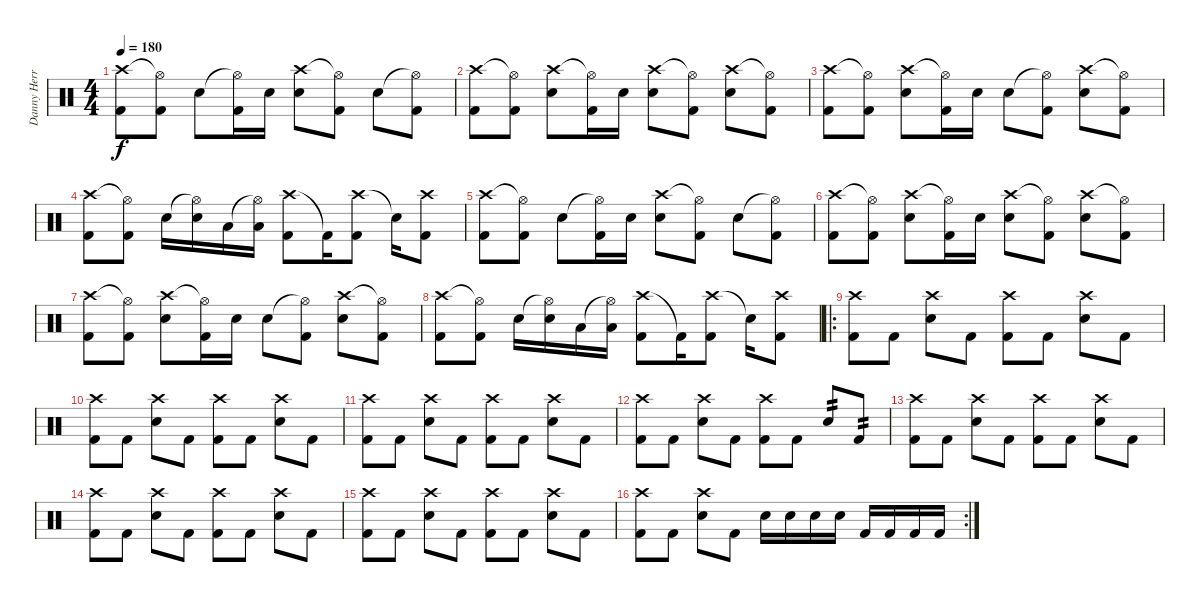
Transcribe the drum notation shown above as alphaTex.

\track ("Danny Herrera" "Danny Herr") {instrument percussion}
\staff {score}
\articulation defaults
\ts (4 4)
\tempo 180
\clef neutral
\ks c
("Crash high (hit)" "Kick (hit) 2").8{dy f} ("Hi-Hat (open)"{t} "Kick (hit) 2").8 "Snare (hit) 2".8 ("Hi-Hat (open)"{t} "Kick (hit) 2").16 "Snare (hit) 2".16 ("Crash high (hit)" "Snare (hit) 2").8 ("Hi-Hat (open)"{t} "Kick (hit) 2").8 "Snare (hit) 2".8 ("Hi-Hat (open)"{t} "Kick (hit) 2").8 |
("Crash high (hit)" "Kick (hit) 2").8 ("Hi-Hat (open)"{t} "Kick (hit) 2").8 ("Crash high (hit)" "Snare (hit) 2").8 ("Hi-Hat (open)"{t} "Kick (hit) 2").16 "Snare (hit) 2".16 ("Crash high (hit)" "Snare (hit) 2").8 ("Hi-Hat (open)"{t} "Kick (hit) 2").8 ("Crash high (hit)" "Snare (hit) 2").8 ("Hi-Hat (open)"{t} "Kick (hit) 2").8 |
("Crash high (hit)" "Kick (hit) 2").8 ("Hi-Hat (open)"{t} "Kick (hit) 2").8 ("Crash high (hit)" "Snare (hit) 2").8 ("Hi-Hat (open)"{t} "Kick (hit) 2").16 "Snare (hit) 2".16 "Snare (hit) 2".8 ("Hi-Hat (open)"{t} "Kick (hit) 2").8 ("Crash high (hit)" "Snare (hit) 2").8 ("Hi-Hat (open)"{t} "Kick (hit) 2").8 |
("Crash high (hit)" "Kick (hit) 2").8 ("Hi-Hat (open)"{t} "Kick (hit) 2").8 "Snare (hit) 2".16 ("Hi-Hat (open)"{t} "Snare (hit) 2").16 "Low Tom (hit)".16 ("Hi-Hat (open)"{t} "Low Tom (hit)").16 ("Crash high (hit)" "Kick (hit) 2").8 "Kick (hit) 2"{t}.16 ("Crash high (hit)" "Kick (hit) 2").8 "Snare (hit)"{t}.16 ("Crash high (hit)" "Kick (hit) 2").8 |
("Crash high (hit)" "Kick (hit) 2").8 ("Hi-Hat (open)"{t} "Kick (hit) 2").8 "Snare (hit) 2".8 ("Hi-Hat (open)"{t} "Kick (hit) 2").16 "Snare (hit) 2".16 ("Crash high (hit)" "Snare (hit) 2").8 ("Hi-Hat (open)"{t} "Kick (hit) 2").8 "Snare (hit) 2".8 ("Hi-Hat (open)"{t} "Kick (hit) 2").8 |
("Crash high (hit)" "Kick (hit) 2").8 ("Hi-Hat (open)"{t} "Kick (hit) 2").8 ("Crash high (hit)" "Snare (hit) 2").8 ("Hi-Hat (open)"{t} "Kick (hit) 2").16 "Snare (hit) 2".16 ("Crash high (hit)" "Snare (hit) 2").8 ("Hi-Hat (open)"{t} "Kick (hit) 2").8 ("Crash high (hit)" "Snare (hit) 2").8 ("Hi-Hat (open)"{t} "Kick (hit) 2").8 |
("Crash high (hit)" "Kick (hit) 2").8 ("Hi-Hat (open)"{t} "Kick (hit) 2").8 ("Crash high (hit)" "Snare (hit) 2").8 ("Hi-Hat (open)"{t} "Kick (hit) 2").16 "Snare (hit) 2".16 "Snare (hit) 2".8 ("Hi-Hat (open)"{t} "Kick (hit) 2").8 ("Crash high (hit)" "Snare (hit) 2").8 ("Hi-Hat (open)"{t} "Kick (hit) 2").8 |
("Crash high (hit)" "Kick (hit) 2").8 ("Hi-Hat (open)"{t} "Kick (hit) 2").8 "Snare (hit) 2".16 ("Hi-Hat (open)"{t} "Snare (hit) 2").16 "Low Tom (hit)".16 ("Hi-Hat (open)"{t} "Low Tom (hit)").16 ("Crash high (hit)" "Kick (hit) 2").8 "Kick (hit) 2"{t}.16 ("Crash high (hit)" "Kick (hit) 2").8 "Snare (hit)"{t}.16 ("Crash high (hit)" "Kick (hit) 2").8 |
\ro
("Crash high (hit)" "Kick (hit) 2").8 "Kick (hit) 2".8 ("Crash high (hit)" "Snare (hit) 2").8 "Kick (hit) 2".8 ("Crash high (hit)" "Kick (hit) 2").8 "Kick (hit) 2".8 ("Crash high (hit)" "Snare (hit) 2").8 "Kick (hit) 2".8 |
("Crash high (hit)" "Kick (hit) 2").8 "Kick (hit) 2".8 ("Crash high (hit)" "Snare (hit) 2").8 "Kick (hit) 2".8 ("Crash high (hit)" "Kick (hit) 2").8 "Kick (hit) 2".8 ("Crash high (hit)" "Snare (hit) 2").8 "Kick (hit) 2".8 |
("Crash high (hit)" "Kick (hit) 2").8 "Kick (hit) 2".8 ("Crash high (hit)" "Snare (hit) 2").8 "Kick (hit) 2".8 ("Crash high (hit)" "Kick (hit) 2").8 "Kick (hit) 2".8 ("Crash high (hit)" "Snare (hit) 2").8 "Kick (hit) 2".8 |
("Crash high (hit)" "Kick (hit) 2").8 "Kick (hit) 2".8 ("Crash high (hit)" "Snare (hit) 2").8 "Kick (hit) 2".8 ("Crash high (hit)" "Kick (hit) 2").8 "Kick (hit) 2".8 "Snare (hit) 2".8{tp 2} "Kick (hit) 2".8{tp 2} |
("Crash high (hit)" "Kick (hit) 2").8 "Kick (hit) 2".8 ("Crash high (hit)" "Snare (hit) 2").8 "Kick (hit) 2".8 ("Crash high (hit)" "Kick (hit) 2").8 "Kick (hit) 2".8 ("Crash high (hit)" "Snare (hit) 2").8 "Kick (hit) 2".8 |
("Crash high (hit)" "Kick (hit) 2").8 "Kick (hit) 2".8 ("Crash high (hit)" "Snare (hit) 2").8 "Kick (hit) 2".8 ("Crash high (hit)" "Kick (hit) 2").8 "Kick (hit) 2".8 ("Crash high (hit)" "Snare (hit) 2").8 "Kick (hit) 2".8 |
("Crash high (hit)" "Kick (hit) 2").8 "Kick (hit) 2".8 ("Crash high (hit)" "Snare (hit) 2").8 "Kick (hit) 2".8 ("Crash high (hit)" "Kick (hit) 2").8 "Kick (hit) 2".8 ("Crash high (hit)" "Snare (hit) 2").8 "Kick (hit) 2".8 |
\rc 2
("Crash high (hit)" "Kick (hit) 2").8 "Kick (hit) 2".8 ("Crash high (hit)" "Snare (hit) 2").8 "Kick (hit) 2".8 "Snare (hit) 2".16 "Snare (hit) 2".16 "Snare (hit) 2".16 "Snare (hit) 2".16 "Kick (hit) 2".16 "Kick (hit) 2".16 "Kick (hit) 2".16 "Kick (hit) 2".16
